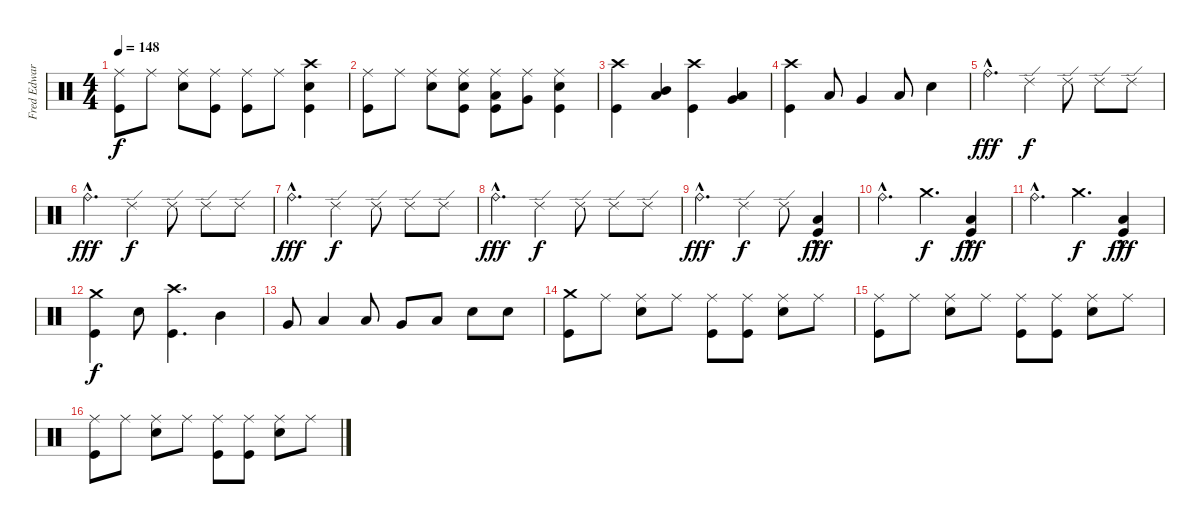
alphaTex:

\track ("Fred Edwards Drums" "Fred Edwar") {instrument percussion}
\staff {score}
\articulation defaults
\ts (4 4)
\tempo 148
\clef neutral
\ks c
("Ride (middle)" "Kick (hit)").8{dy f} "Ride (middle)".8 ("Ride (middle)" "Snare (hit) 2").8 ("Ride (middle)" "Kick (hit)").8 ("Ride (middle)" "Kick (hit)").8 "Ride (middle)".8 ("Crash high (hit)" "Snare (hit) 2" "Kick (hit)").4 |
("Ride (middle)" "Kick (hit)").8 "Ride (middle)".8 ("Ride (middle)" "Snare (hit) 2").8 ("Ride (middle)" "Snare (hit) 2" "Kick (hit)").8 ("Ride (middle)" "Low Tom (hit)" "Kick (hit)").8 ("Ride (middle)" "Very Low Tom (hit)").8 ("Ride (middle)" "Snare (hit) 2" "Kick (hit)").4 |
("Crash high (hit)" "Kick (hit)").4 ("Mid Tom (hit)" "Low Tom (hit)").4 ("Crash high (hit)" "Kick (hit)").4 ("Low Tom (hit)" "Very Low Tom (hit)").4 |
("Crash high (hit)" "Kick (hit)").4 "Low Tom (hit)".8 "Very Low Tom (hit)".4 "Low Tom (hit)".8 "Snare (hit) 2".4 |
"Ride (bell)"{hac}.4{d dy fff volume 16} "Ride (edge) 2".4{dy f} "Ride (edge) 2".8 "Ride (edge) 2".8 "Ride (edge) 2".8 |
"Ride (bell)"{hac}.4{d dy fff} "Ride (edge) 2".4{dy f} "Ride (edge) 2".8 "Ride (edge) 2".8 "Ride (edge) 2".8 |
"Ride (bell)"{hac}.4{d dy fff} "Ride (edge) 2".4{dy f} "Ride (edge) 2".8 "Ride (edge) 2".8 "Ride (edge) 2".8 |
"Ride (bell)"{hac}.4{d dy fff} "Ride (edge) 2".4{dy f} "Ride (edge) 2".8 "Ride (edge) 2".8 "Ride (edge) 2".8 |
"Ride (bell)"{hac}.4{d dy fff} "Ride (edge) 2".4{dy f} "Ride (edge) 2".8 ("Low Floor Tom (hit)"{hac} "Kick (hit)").4{dy fff} |
"Ride (bell)"{hac}.4{d} "Crash medium (hit)".4{d dy f} ("Low Floor Tom (hit)"{hac} "Kick (hit)").4{dy fff} |
"Ride (bell)"{hac}.4{d} "Crash medium (hit)".4{d dy f} ("Low Floor Tom (hit)"{hac} "Kick (hit)").4{dy fff} |
("Crash medium (hit)" "Kick (hit)").4{dy f} "Snare (hit) 2".8 ("Crash high (hit)" "Kick (hit)").4{d} "Mid Tom (hit)".4 |
"Very Low Tom (hit)".8 "Low Tom (hit)".4 "Low Floor Tom (hit)".8 "Very Low Tom (hit)".8 "Low Floor Tom (hit)".8 "Snare (hit) 2".8 "Snare (hit) 2".8 |
("Crash medium (hit)" "Kick (hit)").8 "Ride (middle)".8 ("Ride (middle)" "Snare (hit) 2").8 "Ride (middle)".8 ("Ride (middle)" "Kick (hit)").8 ("Ride (middle)" "Kick (hit)").8 ("Ride (middle)" "Snare (hit) 2").8 "Ride (middle)".8 |
("Ride (middle)" "Kick (hit)").8 "Ride (middle)".8 ("Ride (middle)" "Snare (hit) 2").8 "Ride (middle)".8 ("Ride (middle)" "Kick (hit)").8 ("Ride (middle)" "Kick (hit)").8 ("Ride (middle)" "Snare (hit) 2").8 "Ride (middle)".8 |
("Ride (middle)" "Kick (hit)").8 "Ride (middle)".8 ("Ride (middle)" "Snare (hit) 2").8 "Ride (middle)".8 ("Ride (middle)" "Kick (hit)").8 ("Ride (middle)" "Kick (hit)").8 ("Ride (middle)" "Snare (hit) 2").8 "Ride (middle)".8
